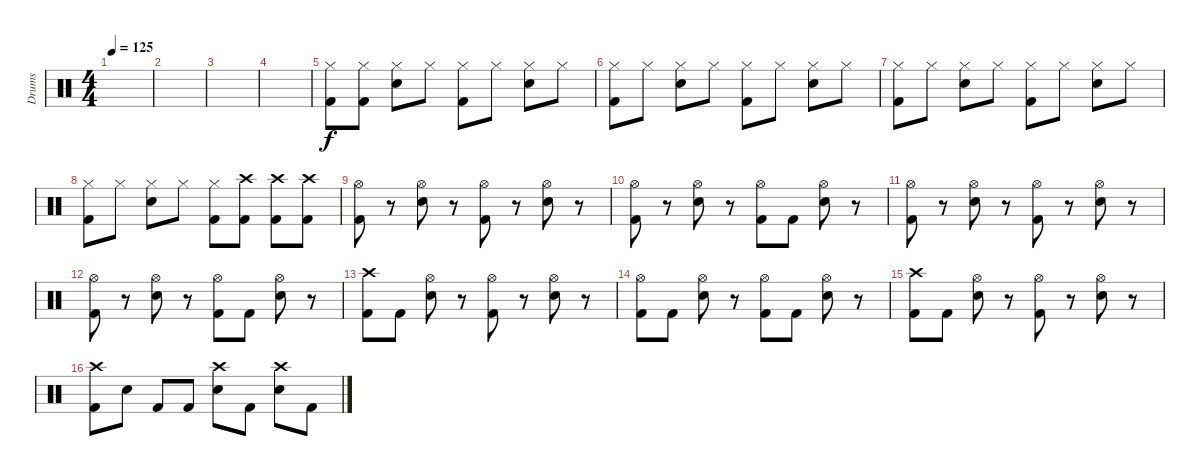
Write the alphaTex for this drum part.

\track ("Drums" "Drums") {instrument percussion}
\staff {score}
\articulation defaults
\ts (4 4)
\tempo 125
\clef neutral
\ks c
|
|
|
|
("Hi-Hat (closed)" "Kick (hit) 2").8 ("Hi-Hat (closed)" "Kick (hit) 2").8 ("Hi-Hat (closed)" "Snare (hit) 2").8 "Hi-Hat (closed)".8 ("Hi-Hat (closed)" "Kick (hit) 2").8 "Hi-Hat (closed)".8 ("Hi-Hat (closed)" "Snare (hit) 2").8 "Hi-Hat (closed)".8 |
("Hi-Hat (closed)" "Kick (hit) 2").8 "Hi-Hat (closed)".8 ("Hi-Hat (closed)" "Snare (hit) 2").8 "Hi-Hat (closed)".8 ("Hi-Hat (closed)" "Kick (hit) 2").8 "Hi-Hat (closed)".8 ("Hi-Hat (closed)" "Snare (hit) 2").8 "Hi-Hat (closed)".8 |
("Hi-Hat (closed)" "Kick (hit) 2").8 "Hi-Hat (closed)".8 ("Hi-Hat (closed)" "Snare (hit) 2").8 "Hi-Hat (closed)".8 ("Hi-Hat (closed)" "Kick (hit) 2").8 "Hi-Hat (closed)".8 ("Hi-Hat (closed)" "Snare (hit) 2").8 "Hi-Hat (closed)".8 |
("Hi-Hat (closed)" "Kick (hit) 2").8 "Hi-Hat (closed)".8 ("Hi-Hat (closed)" "Snare (hit) 2").8 "Hi-Hat (closed)".8 ("Hi-Hat (closed)" "Kick (hit) 2").8 ("Crash high (hit)" "Kick (hit) 2").8 ("Crash high (hit)" "Kick (hit) 2").8 ("Crash high (hit)" "Kick (hit) 2").8 |
("Hi-Hat (open)" "Kick (hit) 2").8 r.8 ("Hi-Hat (open)" "Snare (hit) 2").8 r.8 ("Hi-Hat (open)" "Kick (hit) 2").8 r.8 ("Hi-Hat (open)" "Snare (hit) 2").8 r.8 |
("Hi-Hat (open)" "Kick (hit) 2").8 r.8 ("Hi-Hat (open)" "Snare (hit) 2").8 r.8 ("Hi-Hat (open)" "Kick (hit) 2").8 "Kick (hit) 2".8 ("Hi-Hat (open)" "Snare (hit) 2").8 r.8 |
("Hi-Hat (open)" "Kick (hit) 2").8 r.8 ("Hi-Hat (open)" "Snare (hit) 2").8 r.8 ("Hi-Hat (open)" "Kick (hit) 2").8 r.8 ("Hi-Hat (open)" "Snare (hit) 2").8 r.8 |
("Hi-Hat (open)" "Kick (hit) 2").8 r.8 ("Hi-Hat (open)" "Snare (hit) 2").8 r.8 ("Hi-Hat (open)" "Kick (hit) 2").8 "Kick (hit) 2".8 ("Hi-Hat (open)" "Snare (hit) 2").8 r.8 |
("Crash high (hit)" "Kick (hit) 2").8 "Kick (hit) 2".8 ("Hi-Hat (open)" "Snare (hit) 2").8 r.8 ("Hi-Hat (open)" "Kick (hit) 2").8 r.8 ("Hi-Hat (open)" "Snare (hit) 2").8 r.8 |
("Hi-Hat (open)" "Kick (hit) 2").8 "Kick (hit) 2".8 ("Hi-Hat (open)" "Snare (hit) 2").8 r.8 ("Hi-Hat (open)" "Kick (hit) 2").8 "Kick (hit) 2".8 ("Hi-Hat (open)" "Snare (hit) 2").8 r.8 |
("Crash high (hit)" "Kick (hit) 2").8 "Kick (hit) 2".8 ("Hi-Hat (open)" "Snare (hit) 2").8 r.8 ("Hi-Hat (open)" "Kick (hit) 2").8 r.8 ("Hi-Hat (open)" "Snare (hit) 2").8 r.8 |
("Crash high (hit)" "Kick (hit) 2").8 "Snare (hit) 2".8 "Kick (hit) 2".8 "Kick (hit) 2".8 ("Crash high (hit)" "Snare (hit) 2").8 "Kick (hit) 2".8 ("Crash high (hit)" "Snare (hit) 2").8 "Kick (hit) 2".8
